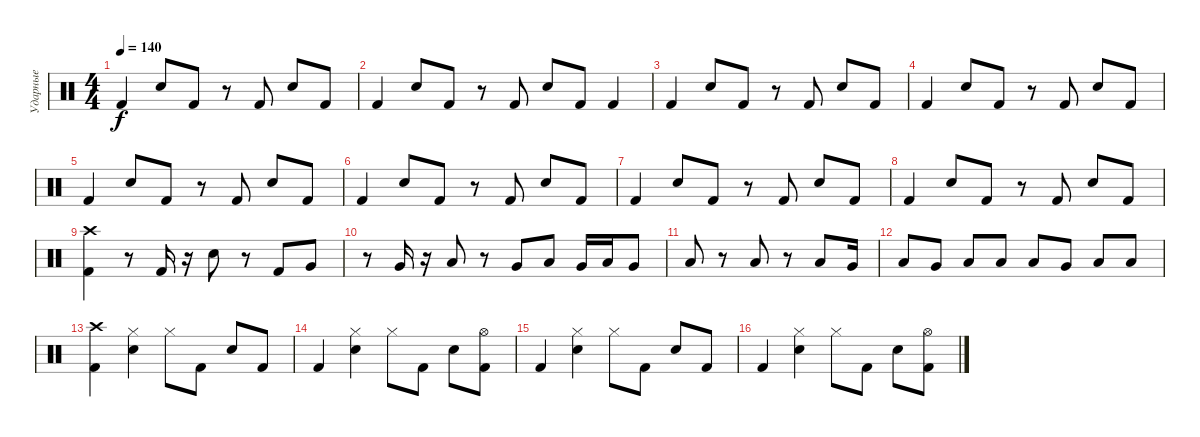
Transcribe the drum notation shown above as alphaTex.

\track ("Ударные" "Ударные") {instrument percussion}
\staff {score}
\articulation defaults
\ts (4 4)
\tempo 140
\clef neutral
\ks c "Kick (hit) 2".4{dy f} "Snare (hit) 2".8 "Kick (hit) 2".8
r.8 "Kick (hit) 2".8 "Snare (hit) 2".8 "Kick (hit) 2".8 |
"Kick (hit) 2".4 "Snare (hit) 2".8 "Kick (hit) 2".8 r.8 "Kick (hit) 2".8 "Snare (hit) 2".8 "Kick (hit) 2".8 "Kick (hit) 2".4 |
"Kick (hit) 2".4 "Snare (hit) 2".8 "Kick (hit) 2".8 r.8 "Kick (hit) 2".8 "Snare (hit) 2".8 "Kick (hit) 2".8 |
"Kick (hit) 2".4 "Snare (hit) 2".8 "Kick (hit) 2".8 r.8 "Kick (hit) 2".8 "Snare (hit) 2".8 "Kick (hit) 2".8 |
"Kick (hit) 2".4 "Snare (hit) 2".8 "Kick (hit) 2".8 r.8 "Kick (hit) 2".8 "Snare (hit) 2".8 "Kick (hit) 2".8 |
"Kick (hit) 2".4 "Snare (hit) 2".8 "Kick (hit) 2".8 r.8 "Kick (hit) 2".8 "Snare (hit) 2".8 "Kick (hit) 2".8 |
"Kick (hit) 2".4 "Snare (hit) 2".8 "Kick (hit) 2".8 r.8 "Kick (hit) 2".8 "Snare (hit) 2".8 "Kick (hit) 2".8 |
"Kick (hit) 2".4 "Snare (hit) 2".8 "Kick (hit) 2".8 r.8 "Kick (hit) 2".8 "Snare (hit) 2".8 "Kick (hit) 2".8 |
("Crash high (hit)" "Kick (hit) 2").4 r.8 "Kick (hit) 2".16 r.16 "Snare (hit) 2".8 r.8 "Kick (hit) 2".8 "Very Low Tom (hit)".8 |
r.8 "Very Low Tom (hit)".16 r.16 "Low Floor Tom (hit)".8 r.8 "Very Low Tom (hit)".8 "Low Floor Tom (hit)".8 "Very Low Tom (hit)".16 "Low Floor Tom (hit)".16 "Very Low Tom (hit)".8 |
"Low Floor Tom (hit)".8 r.8 "Low Tom (hit)".8 r.8 "Low Tom (hit)".8 "Very Low Tom (hit)".16 |
"Low Tom (hit)".8 "Very Low Tom (hit)".8 "Low Floor Tom (hit)".8 "Low Floor Tom (hit)".8 "Low Tom (hit)".8 "Very Low Tom (hit)".8 "Low Floor Tom (hit)".8 "Low Floor Tom (hit)".8 |
("Crash high (hit)" "Kick (hit) 2").4 ("Hi-Hat (closed)" "Snare (hit) 2").4 "Hi-Hat (closed)".8 "Kick (hit) 2".8 "Snare (hit) 2".8 "Kick (hit) 2".8 |
"Kick (hit) 2".4 ("Hi-Hat (closed)" "Snare (hit) 2").4 "Hi-Hat (closed)".8 "Kick (hit) 2".8 "Snare (hit) 2".8 ("Hi-Hat (open)" "Kick (hit) 2").8 |
"Kick (hit) 2".4 ("Hi-Hat (closed)" "Snare (hit) 2").4 "Hi-Hat (closed)".8 "Kick (hit) 2".8 "Snare (hit) 2".8 "Kick (hit) 2".8 |
"Kick (hit) 2".4 ("Hi-Hat (closed)" "Snare (hit) 2").4 "Hi-Hat (closed)".8 "Kick (hit) 2".8 "Snare (hit) 2".8 ("Hi-Hat (open)" "Kick (hit) 2").8
